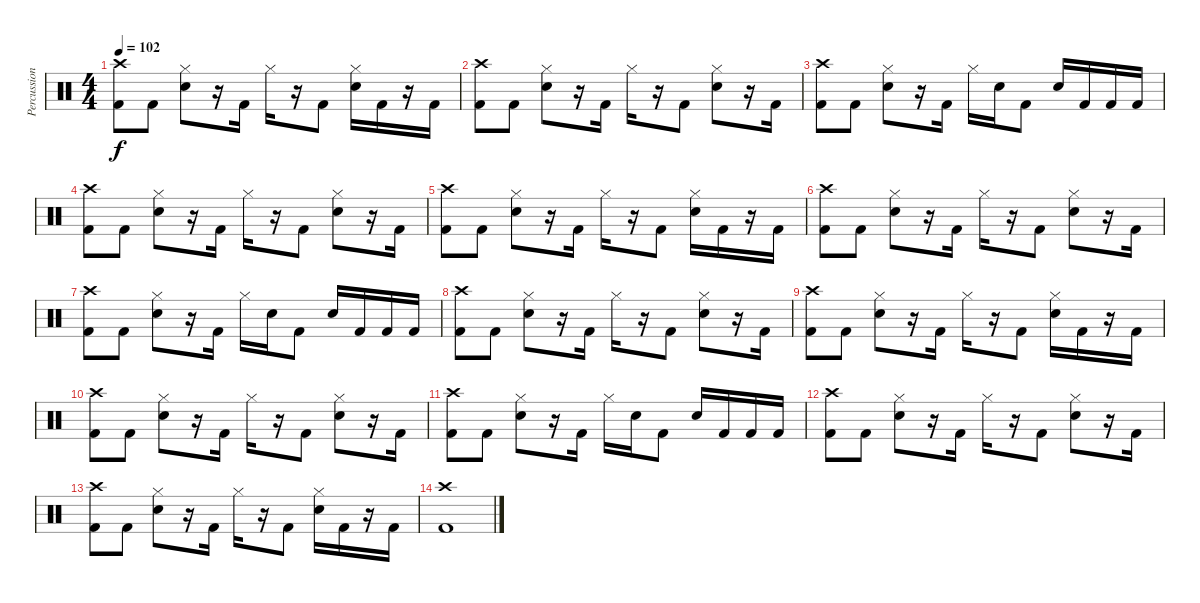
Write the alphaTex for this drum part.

\track ("Percussions" "Percussion") {instrument percussion}
\staff {score}
\articulation defaults
\ts (4 4)
\tempo 102
\clef neutral
\ks c
("Crash high (hit)" "Kick (hit) 2").8{dy f} "Kick (hit) 2".8 ("Snare (hit) 2" "Hi-Hat (closed)").8 r.16 "Kick (hit) 2".16 "Hi-Hat (closed)".16 r.16 "Kick (hit) 2".8 ("Snare (hit) 2" "Hi-Hat (closed)").16 "Kick (hit) 2".16 r.16 "Kick (hit) 2".16 |
("Crash high (hit)" "Kick (hit) 2").8 "Kick (hit) 2".8 ("Snare (hit) 2" "Hi-Hat (closed)").8 r.16 "Kick (hit) 2".16 "Hi-Hat (closed)".16 r.16 "Kick (hit) 2".8 ("Snare (hit) 2" "Hi-Hat (closed)").8 r.16 "Kick (hit) 2".16 |
("Crash high (hit)" "Kick (hit) 2").8 "Kick (hit) 2".8 ("Snare (hit) 2" "Hi-Hat (closed)").8 r.16 "Kick (hit) 2".16 "Hi-Hat (closed)".16 "Snare (hit) 2".16 "Kick (hit) 2".8 "Snare (hit) 2".16 "Kick (hit) 2".16 "Kick (hit) 2".16 "Kick (hit) 2".16 |
("Crash high (hit)" "Kick (hit) 2").8 "Kick (hit) 2".8 ("Snare (hit) 2" "Hi-Hat (closed)").8 r.16 "Kick (hit) 2".16 "Hi-Hat (closed)".16 r.16 "Kick (hit) 2".8 ("Snare (hit) 2" "Hi-Hat (closed)").8 r.16 "Kick (hit) 2".16 |
("Crash high (hit)" "Kick (hit) 2").8 "Kick (hit) 2".8 ("Snare (hit) 2" "Hi-Hat (closed)").8 r.16 "Kick (hit) 2".16 "Hi-Hat (closed)".16 r.16 "Kick (hit) 2".8 ("Snare (hit) 2" "Hi-Hat (closed)").16 "Kick (hit) 2".16 r.16 "Kick (hit) 2".16 |
("Crash high (hit)" "Kick (hit) 2").8 "Kick (hit) 2".8 ("Snare (hit) 2" "Hi-Hat (closed)").8 r.16 "Kick (hit) 2".16 "Hi-Hat (closed)".16 r.16 "Kick (hit) 2".8 ("Snare (hit) 2" "Hi-Hat (closed)").8 r.16 "Kick (hit) 2".16 |
("Crash high (hit)" "Kick (hit) 2").8 "Kick (hit) 2".8 ("Snare (hit) 2" "Hi-Hat (closed)").8 r.16 "Kick (hit) 2".16 "Hi-Hat (closed)".16 "Snare (hit) 2".16 "Kick (hit) 2".8 "Snare (hit) 2".16 "Kick (hit) 2".16 "Kick (hit) 2".16 "Kick (hit) 2".16 |
("Crash high (hit)" "Kick (hit) 2").8 "Kick (hit) 2".8 ("Snare (hit) 2" "Hi-Hat (closed)").8 r.16 "Kick (hit) 2".16 "Hi-Hat (closed)".16 r.16 "Kick (hit) 2".8 ("Snare (hit) 2" "Hi-Hat (closed)").8 r.16 "Kick (hit) 2".16 |
("Crash high (hit)" "Kick (hit) 2").8 "Kick (hit) 2".8 ("Snare (hit) 2" "Hi-Hat (closed)").8 r.16 "Kick (hit) 2".16 "Hi-Hat (closed)".16 r.16 "Kick (hit) 2".8 ("Snare (hit) 2" "Hi-Hat (closed)").16 "Kick (hit) 2".16 r.16 "Kick (hit) 2".16 |
("Crash high (hit)" "Kick (hit) 2").8 "Kick (hit) 2".8 ("Snare (hit) 2" "Hi-Hat (closed)").8 r.16 "Kick (hit) 2".16 "Hi-Hat (closed)".16 r.16 "Kick (hit) 2".8 ("Snare (hit) 2" "Hi-Hat (closed)").8 r.16 "Kick (hit) 2".16 |
("Crash high (hit)" "Kick (hit) 2").8 "Kick (hit) 2".8 ("Snare (hit) 2" "Hi-Hat (closed)").8 r.16 "Kick (hit) 2".16 "Hi-Hat (closed)".16 "Snare (hit) 2".16 "Kick (hit) 2".8 "Snare (hit) 2".16 "Kick (hit) 2".16 "Kick (hit) 2".16 "Kick (hit) 2".16 |
("Crash high (hit)" "Kick (hit) 2").8 "Kick (hit) 2".8 ("Snare (hit) 2" "Hi-Hat (closed)").8 r.16 "Kick (hit) 2".16 "Hi-Hat (closed)".16 r.16 "Kick (hit) 2".8 ("Snare (hit) 2" "Hi-Hat (closed)").8 r.16 "Kick (hit) 2".16 |
("Crash high (hit)" "Kick (hit) 2").8 "Kick (hit) 2".8 ("Snare (hit) 2" "Hi-Hat (closed)").8 r.16 "Kick (hit) 2".16 "Hi-Hat (closed)".16 r.16 "Kick (hit) 2".8 ("Snare (hit) 2" "Hi-Hat (closed)").16 "Kick (hit) 2".16 r.16 "Kick (hit) 2".16 |
("Crash high (hit)" "Kick (hit) 2").1
